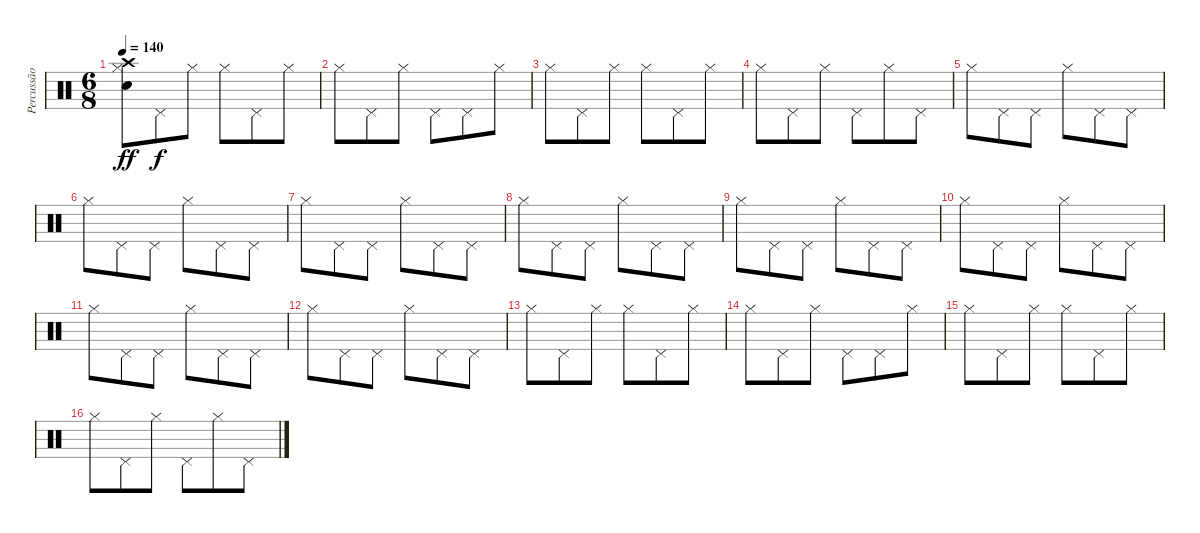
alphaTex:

\track ("Percussão" "Percussão") {instrument percussion}
\staff {score}
\articulation defaults
\ts (6 8)
\tempo 140
\clef neutral
\ks c
("Hi-Hat (closed)" "Snare (hit) 2" "Crash high (hit)").8{dy ff} "Pedal Hi-Hat (hit)".8{dy f} "Hi-Hat (closed)".8 "Hi-Hat (closed)".8 "Pedal Hi-Hat (hit)".8 "Hi-Hat (closed)".8 |
"Hi-Hat (closed)".8 "Pedal Hi-Hat (hit)".8 "Hi-Hat (closed)".8 "Pedal Hi-Hat (hit)".8 "Pedal Hi-Hat (hit)".8 "Hi-Hat (closed)".8 |
"Hi-Hat (closed)".8 "Pedal Hi-Hat (hit)".8 "Hi-Hat (closed)".8 "Hi-Hat (closed)".8 "Pedal Hi-Hat (hit)".8 "Hi-Hat (closed)".8 |
"Hi-Hat (closed)".8 "Pedal Hi-Hat (hit)".8 "Hi-Hat (closed)".8 "Pedal Hi-Hat (hit)".8 "Hi-Hat (closed)".8 "Pedal Hi-Hat (hit)".8 |
"Hi-Hat (closed)".8 "Pedal Hi-Hat (hit)".8 "Pedal Hi-Hat (hit)".8 "Hi-Hat (closed)".8 "Pedal Hi-Hat (hit)".8 "Pedal Hi-Hat (hit)".8 |
"Hi-Hat (closed)".8 "Pedal Hi-Hat (hit)".8 "Pedal Hi-Hat (hit)".8 "Hi-Hat (closed)".8 "Pedal Hi-Hat (hit)".8 "Pedal Hi-Hat (hit)".8 |
"Hi-Hat (closed)".8 "Pedal Hi-Hat (hit)".8 "Pedal Hi-Hat (hit)".8 "Hi-Hat (closed)".8 "Pedal Hi-Hat (hit)".8 "Pedal Hi-Hat (hit)".8 |
"Hi-Hat (closed)".8 "Pedal Hi-Hat (hit)".8 "Pedal Hi-Hat (hit)".8 "Hi-Hat (closed)".8 "Pedal Hi-Hat (hit)".8 "Pedal Hi-Hat (hit)".8 |
"Hi-Hat (closed)".8 "Pedal Hi-Hat (hit)".8 "Pedal Hi-Hat (hit)".8 "Hi-Hat (closed)".8 "Pedal Hi-Hat (hit)".8 "Pedal Hi-Hat (hit)".8 |
"Hi-Hat (closed)".8 "Pedal Hi-Hat (hit)".8 "Pedal Hi-Hat (hit)".8 "Hi-Hat (closed)".8 "Pedal Hi-Hat (hit)".8 "Pedal Hi-Hat (hit)".8 |
"Hi-Hat (closed)".8 "Pedal Hi-Hat (hit)".8 "Pedal Hi-Hat (hit)".8 "Hi-Hat (closed)".8 "Pedal Hi-Hat (hit)".8 "Pedal Hi-Hat (hit)".8 |
"Hi-Hat (closed)".8 "Pedal Hi-Hat (hit)".8 "Pedal Hi-Hat (hit)".8 "Hi-Hat (closed)".8 "Pedal Hi-Hat (hit)".8 "Pedal Hi-Hat (hit)".8 |
"Hi-Hat (closed)".8 "Pedal Hi-Hat (hit)".8 "Hi-Hat (closed)".8 "Hi-Hat (closed)".8 "Pedal Hi-Hat (hit)".8 "Hi-Hat (closed)".8 |
"Hi-Hat (closed)".8 "Pedal Hi-Hat (hit)".8 "Hi-Hat (closed)".8 "Pedal Hi-Hat (hit)".8 "Pedal Hi-Hat (hit)".8 "Hi-Hat (closed)".8 |
"Hi-Hat (closed)".8 "Pedal Hi-Hat (hit)".8 "Hi-Hat (closed)".8 "Hi-Hat (closed)".8 "Pedal Hi-Hat (hit)".8 "Hi-Hat (closed)".8 |
"Hi-Hat (closed)".8 "Pedal Hi-Hat (hit)".8 "Hi-Hat (closed)".8 "Pedal Hi-Hat (hit)".8 "Hi-Hat (closed)".8 "Pedal Hi-Hat (hit)".8
